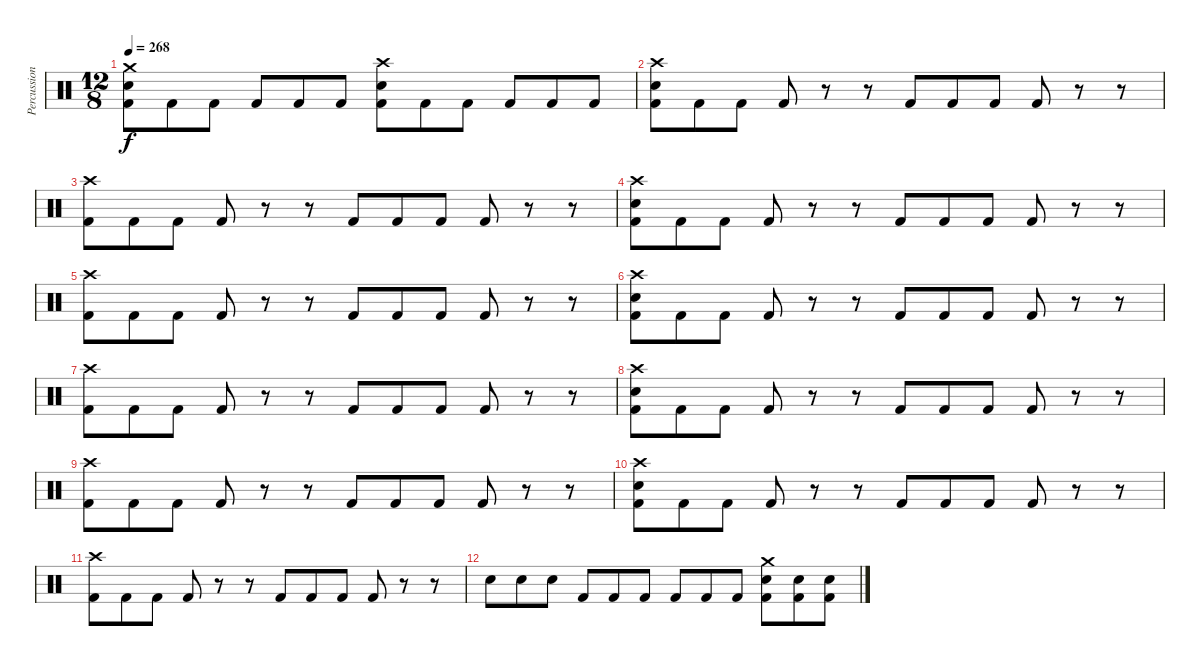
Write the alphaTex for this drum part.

\track ("Percussion" "Percussion") {instrument percussion}
\staff {score}
\articulation defaults
\ts (12 8)
\tempo 268
\clef neutral
\ks c
("Crash medium (hit)" "Electric Snare (hit)" "Kick (hit) 2").8{dy f} "Kick (hit) 2".8 "Kick (hit) 2".8 "Kick (hit) 2".8 "Kick (hit) 2".8 "Kick (hit) 2".8 ("Crash high (hit)" "Electric Snare (hit)" "Kick (hit) 2").8 "Kick (hit) 2".8 "Kick (hit) 2".8 "Kick (hit) 2".8 "Kick (hit) 2".8 "Kick (hit) 2".8 |
("Crash high (hit)" "Electric Snare (hit)" "Kick (hit) 2").8 "Kick (hit) 2".8 "Kick (hit) 2".8 "Kick (hit) 2".8 r.8 r.8 "Kick (hit) 2".8 "Kick (hit) 2".8 "Kick (hit) 2".8 "Kick (hit) 2".8 r.8 r.8 |
("Crash high (hit)" "Kick (hit) 2").8 "Kick (hit) 2".8 "Kick (hit) 2".8 "Kick (hit) 2".8 r.8 r.8 "Kick (hit) 2".8 "Kick (hit) 2".8 "Kick (hit) 2".8 "Kick (hit) 2".8 r.8 r.8 |
("Crash high (hit)" "Electric Snare (hit)" "Kick (hit) 2").8 "Kick (hit) 2".8 "Kick (hit) 2".8 "Kick (hit) 2".8 r.8 r.8 "Kick (hit) 2".8 "Kick (hit) 2".8 "Kick (hit) 2".8 "Kick (hit) 2".8 r.8 r.8 |
("Crash high (hit)" "Kick (hit) 2").8 "Kick (hit) 2".8 "Kick (hit) 2".8 "Kick (hit) 2".8 r.8 r.8 "Kick (hit) 2".8 "Kick (hit) 2".8 "Kick (hit) 2".8 "Kick (hit) 2".8 r.8 r.8 |
("Crash high (hit)" "Electric Snare (hit)" "Kick (hit) 2").8 "Kick (hit) 2".8 "Kick (hit) 2".8 "Kick (hit) 2".8 r.8 r.8 "Kick (hit) 2".8 "Kick (hit) 2".8 "Kick (hit) 2".8 "Kick (hit) 2".8 r.8 r.8 |
("Crash high (hit)" "Kick (hit) 2").8 "Kick (hit) 2".8 "Kick (hit) 2".8 "Kick (hit) 2".8 r.8 r.8 "Kick (hit) 2".8 "Kick (hit) 2".8 "Kick (hit) 2".8 "Kick (hit) 2".8 r.8 r.8 |
("Crash high (hit)" "Electric Snare (hit)" "Kick (hit) 2").8 "Kick (hit) 2".8 "Kick (hit) 2".8 "Kick (hit) 2".8 r.8 r.8 "Kick (hit) 2".8 "Kick (hit) 2".8 "Kick (hit) 2".8 "Kick (hit) 2".8 r.8 r.8 |
("Crash high (hit)" "Kick (hit) 2").8 "Kick (hit) 2".8 "Kick (hit) 2".8 "Kick (hit) 2".8 r.8 r.8 "Kick (hit) 2".8 "Kick (hit) 2".8 "Kick (hit) 2".8 "Kick (hit) 2".8 r.8 r.8 |
("Crash high (hit)" "Electric Snare (hit)" "Kick (hit) 2").8 "Kick (hit) 2".8 "Kick (hit) 2".8 "Kick (hit) 2".8 r.8 r.8 "Kick (hit) 2".8 "Kick (hit) 2".8 "Kick (hit) 2".8 "Kick (hit) 2".8 r.8 r.8 |
("Crash high (hit)" "Kick (hit) 2").8 "Kick (hit) 2".8 "Kick (hit) 2".8 "Kick (hit) 2".8 r.8 r.8 "Kick (hit) 2".8 "Kick (hit) 2".8 "Kick (hit) 2".8 "Kick (hit) 2".8 r.8 r.8 |
"Electric Snare (hit)".8 "Electric Snare (hit)".8 "Electric Snare (hit)".8 "Kick (hit) 2".8 "Kick (hit) 2".8 "Kick (hit) 2".8 "Kick (hit) 2".8 "Kick (hit) 2".8 "Kick (hit) 2".8 ("Crash medium (hit)" "Electric Snare (hit)" "Kick (hit) 2").8 ("Electric Snare (hit)" "Kick (hit) 2").8 ("Electric Snare (hit)" "Kick (hit) 2").8
